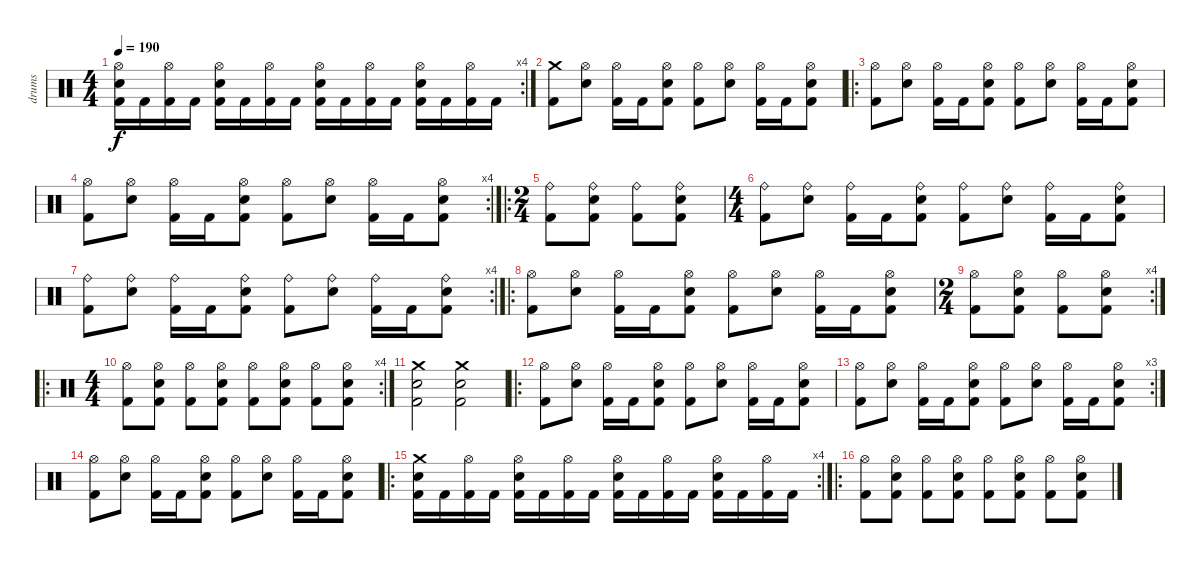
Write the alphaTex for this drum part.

\track ("drums" "drums") {instrument percussion}
\staff {score}
\articulation defaults
\rc 4
\ts (4 4)
\tempo 190
\clef neutral
\ks c
("Hi-Hat (open)" "Snare (hit) 2" "Kick (hit) 2").16{dy f} "Kick (hit) 2".16 ("Hi-Hat (open)" "Kick (hit) 2").16 "Kick (hit) 2".16 ("Hi-Hat (open)" "Snare (hit) 2" "Kick (hit) 2").16 "Kick (hit) 2".16 ("Hi-Hat (open)" "Kick (hit) 2").16 "Kick (hit) 2".16 ("Hi-Hat (open)" "Snare (hit) 2" "Kick (hit) 2").16 "Kick (hit) 2".16 ("Hi-Hat (open)" "Kick (hit) 2").16 "Kick (hit) 2".16 ("Hi-Hat (open)" "Snare (hit) 2" "Kick (hit) 2").16 "Kick (hit) 2".16 ("Hi-Hat (open)" "Kick (hit) 2").16 "Kick (hit) 2".16 |
("Crash medium (hit)" "Kick (hit) 2").8 ("Hi-Hat (open)" "Snare (hit) 2").8 ("Hi-Hat (open)" "Kick (hit) 2").16 "Kick (hit) 2".16 ("Hi-Hat (open)" "Snare (hit) 2" "Kick (hit) 2").8 ("Hi-Hat (open)" "Kick (hit) 2").8 ("Hi-Hat (open)" "Snare (hit) 2").8 ("Hi-Hat (open)" "Kick (hit) 2").16 "Kick (hit) 2".16 ("Hi-Hat (open)" "Snare (hit) 2" "Kick (hit) 2").8 |
\ro
("Hi-Hat (open)" "Kick (hit) 2").8 ("Hi-Hat (open)" "Snare (hit) 2").8 ("Hi-Hat (open)" "Kick (hit) 2").16 "Kick (hit) 2".16 ("Hi-Hat (open)" "Snare (hit) 2" "Kick (hit) 2").8 ("Hi-Hat (open)" "Kick (hit) 2").8 ("Hi-Hat (open)" "Snare (hit) 2").8 ("Hi-Hat (open)" "Kick (hit) 2").16 "Kick (hit) 2".16 ("Hi-Hat (open)" "Snare (hit) 2" "Kick (hit) 2").8 |
\rc 4
("Hi-Hat (open)" "Kick (hit) 2").8 ("Hi-Hat (open)" "Snare (hit) 2").8 ("Hi-Hat (open)" "Kick (hit) 2").16 "Kick (hit) 2".16 ("Hi-Hat (open)" "Snare (hit) 2" "Kick (hit) 2").8 ("Hi-Hat (open)" "Kick (hit) 2").8 ("Hi-Hat (open)" "Snare (hit) 2").8 ("Hi-Hat (open)" "Kick (hit) 2").16 "Kick (hit) 2".16 ("Hi-Hat (open)" "Snare (hit) 2" "Kick (hit) 2").8 |
\ro
\ts (2 4)
("Ride (bell)" "Kick (hit) 2").8 ("Ride (bell)" "Snare (hit) 2" "Kick (hit) 2").8 ("Ride (bell)" "Kick (hit) 2").8 ("Ride (bell)" "Snare (hit) 2" "Kick (hit) 2").8 |
\ts (4 4)
("Ride (bell)" "Kick (hit) 2").8 ("Ride (bell)" "Snare (hit) 2").8 ("Ride (bell)" "Kick (hit) 2").16 "Kick (hit) 2".16 ("Ride (bell)" "Snare (hit) 2" "Kick (hit) 2").8 ("Ride (bell)" "Kick (hit) 2").8 ("Ride (bell)" "Snare (hit) 2").8 ("Ride (bell)" "Kick (hit) 2").16 "Kick (hit) 2".16 ("Ride (bell)" "Snare (hit) 2" "Kick (hit) 2").8 |
\rc 4
("Ride (bell)" "Kick (hit) 2").8 ("Ride (bell)" "Snare (hit) 2").8 ("Ride (bell)" "Kick (hit) 2").16 "Kick (hit) 2".16 ("Ride (bell)" "Snare (hit) 2" "Kick (hit) 2").8 ("Ride (bell)" "Kick (hit) 2").8 ("Ride (bell)" "Snare (hit) 2").8 ("Ride (bell)" "Kick (hit) 2").16 "Kick (hit) 2".16 ("Ride (bell)" "Snare (hit) 2" "Kick (hit) 2").8 |
\ro
("Hi-Hat (open)" "Kick (hit) 2").8 ("Hi-Hat (open)" "Snare (hit) 2").8 ("Hi-Hat (open)" "Kick (hit) 2").16 "Kick (hit) 2".16 ("Hi-Hat (open)" "Snare (hit) 2" "Kick (hit) 2").8 ("Hi-Hat (open)" "Kick (hit) 2").8 ("Hi-Hat (open)" "Snare (hit) 2").8 ("Hi-Hat (open)" "Kick (hit) 2").16 "Kick (hit) 2".16 ("Hi-Hat (open)" "Snare (hit) 2" "Kick (hit) 2").8 |
\rc 4
\ts (2 4)
("Hi-Hat (open)" "Kick (hit) 2").8 ("Hi-Hat (open)" "Snare (hit) 2" "Kick (hit) 2").8 ("Hi-Hat (open)" "Kick (hit) 2").8 ("Hi-Hat (open)" "Snare (hit) 2" "Kick (hit) 2").8 |
\ro
\rc 4
\ts (4 4)
("Hi-Hat (open)" "Kick (hit) 2").8 ("Hi-Hat (open)" "Snare (hit) 2" "Kick (hit) 2").8 ("Hi-Hat (open)" "Kick (hit) 2").8 ("Hi-Hat (open)" "Snare (hit) 2" "Kick (hit) 2").8 ("Hi-Hat (open)" "Kick (hit) 2").8 ("Hi-Hat (open)" "Snare (hit) 2" "Kick (hit) 2").8 ("Hi-Hat (open)" "Kick (hit) 2").8 ("Hi-Hat (open)" "Snare (hit) 2" "Kick (hit) 2").8 |
("Crash medium (hit)" "Snare (hit) 2" "Kick (hit) 2").2 ("Crash medium (hit)" "Snare (hit) 2" "Kick (hit) 2").2 |
\ro
("Hi-Hat (open)" "Kick (hit) 2").8 ("Hi-Hat (open)" "Snare (hit) 2").8 ("Hi-Hat (open)" "Kick (hit) 2").16 "Kick (hit) 2".16 ("Hi-Hat (open)" "Snare (hit) 2" "Kick (hit) 2").8 ("Hi-Hat (open)" "Kick (hit) 2").8 ("Hi-Hat (open)" "Snare (hit) 2").8 ("Hi-Hat (open)" "Kick (hit) 2").16 "Kick (hit) 2".16 ("Hi-Hat (open)" "Snare (hit) 2" "Kick (hit) 2").8 |
\rc 3
("Hi-Hat (open)" "Kick (hit) 2").8 ("Hi-Hat (open)" "Snare (hit) 2").8 ("Hi-Hat (open)" "Kick (hit) 2").16 "Kick (hit) 2".16 ("Hi-Hat (open)" "Snare (hit) 2" "Kick (hit) 2").8 ("Hi-Hat (open)" "Kick (hit) 2").8 ("Hi-Hat (open)" "Snare (hit) 2").8 ("Hi-Hat (open)" "Kick (hit) 2").16 "Kick (hit) 2".16 ("Hi-Hat (open)" "Snare (hit) 2" "Kick (hit) 2").8 |
("Hi-Hat (open)" "Kick (hit) 2").8 ("Hi-Hat (open)" "Snare (hit) 2").8 ("Hi-Hat (open)" "Kick (hit) 2").16 "Kick (hit) 2".16 ("Hi-Hat (open)" "Snare (hit) 2" "Kick (hit) 2").8 ("Hi-Hat (open)" "Kick (hit) 2").8 ("Hi-Hat (open)" "Snare (hit) 2").8 ("Hi-Hat (open)" "Kick (hit) 2").16 "Kick (hit) 2".16 ("Hi-Hat (open)" "Snare (hit) 2" "Kick (hit) 2").8 |
\ro
\rc 4
("Crash medium (hit)" "Snare (hit) 2" "Kick (hit) 2").16 "Kick (hit) 2".16 ("Hi-Hat (open)" "Kick (hit) 2").16 "Kick (hit) 2".16 ("Hi-Hat (open)" "Snare (hit) 2" "Kick (hit) 2").16 "Kick (hit) 2".16 ("Hi-Hat (open)" "Kick (hit) 2").16 "Kick (hit) 2".16 ("Hi-Hat (open)" "Snare (hit) 2" "Kick (hit) 2").16 "Kick (hit) 2".16 ("Hi-Hat (open)" "Kick (hit) 2").16 "Kick (hit) 2".16 ("Hi-Hat (open)" "Snare (hit) 2" "Kick (hit) 2").16 "Kick (hit) 2".16 ("Hi-Hat (open)" "Kick (hit) 2").16 "Kick (hit) 2".16 |
\ro
("Hi-Hat (open)" "Kick (hit) 2").8 ("Hi-Hat (open)" "Snare (hit) 2" "Kick (hit) 2").8 ("Hi-Hat (open)" "Kick (hit) 2").8 ("Hi-Hat (open)" "Snare (hit) 2" "Kick (hit) 2").8 ("Hi-Hat (open)" "Kick (hit) 2").8 ("Hi-Hat (open)" "Snare (hit) 2" "Kick (hit) 2").8 ("Hi-Hat (open)" "Kick (hit) 2").8 ("Hi-Hat (open)" "Snare (hit) 2" "Kick (hit) 2").8
